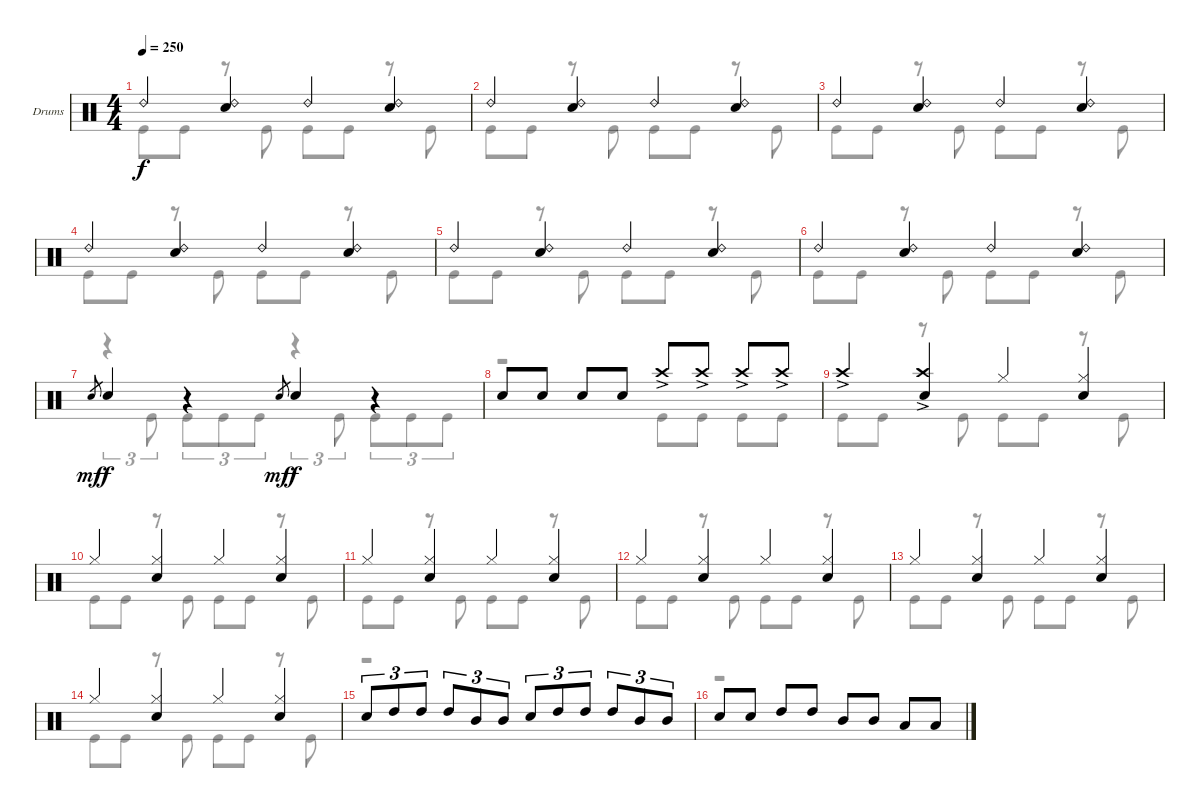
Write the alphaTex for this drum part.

\bracketExtendMode groupsimilarinstruments
\firstSystemTrackNameOrientation horizontal
\otherSystemsTrackNameOrientation horizontal
\track ("Drumkit" "Drums") {instrument percussion}
\staff {score}
\articulation defaults
\voice
\ts (4 4)
\tempo 250
\clef neutral
\ks c "Ride (bell) 2".4{dy f}
("Ride (bell) 2" "Snare (hit) 2").4 "Ride (bell) 2".4 ("Ride (bell) 2" "Snare (hit) 2").4 |
"Ride (bell) 2".4 ("Ride (bell) 2" "Snare (hit) 2").4 "Ride (bell) 2".4 ("Ride (bell) 2" "Snare (hit) 2").4 |
"Ride (bell) 2".4 ("Ride (bell) 2" "Snare (hit) 2").4 "Ride (bell) 2".4 ("Ride (bell) 2" "Snare (hit) 2").4 |
"Ride (bell) 2".4 ("Ride (bell) 2" "Snare (hit) 2").4 "Ride (bell) 2".4 ("Ride (bell) 2" "Snare (hit) 2").4 |
"Ride (bell) 2".4 ("Ride (bell) 2" "Snare (hit) 2").4 "Ride (bell) 2".4 ("Ride (bell) 2" "Snare (hit) 2").4 |
"Ride (bell) 2".4 ("Ride (bell) 2" "Snare (hit) 2").4 "Ride (bell) 2".4 ("Ride (bell) 2" "Snare (hit) 2").4 |
"Snare (hit) 2".8{gr dy mf} "Snare (hit) 2".4{dy f} r.4 "Snare (hit) 2".8{gr dy mf} "Snare (hit) 2".4{dy f} r.4 |
"Snare (hit) 2".8 "Snare (hit) 2".8 "Snare (hit) 2".8 "Snare (hit) 2".8 "Crash high (hit)"{ac}.8 "Crash high (hit)"{ac}.8 "Crash high (hit)"{ac}.8 "Crash high (hit)"{ac}.8 |
"Crash high (hit)"{ac}.4 ("Crash high (hit)"{ac} "Snare (hit) 2").4 "Hi-Hat (closed)".4 ("Hi-Hat (closed)" "Snare (hit) 2").4 |
"Hi-Hat (closed)".4 ("Hi-Hat (closed)" "Snare (hit) 2").4 "Hi-Hat (closed)".4 ("Hi-Hat (closed)" "Snare (hit) 2").4 |
"Hi-Hat (closed)".4 ("Hi-Hat (closed)" "Snare (hit) 2").4 "Hi-Hat (closed)".4 ("Hi-Hat (closed)" "Snare (hit) 2").4 |
"Hi-Hat (closed)".4 ("Hi-Hat (closed)" "Snare (hit) 2").4 "Hi-Hat (closed)".4 ("Hi-Hat (closed)" "Snare (hit) 2").4 |
"Hi-Hat (closed)".4 ("Hi-Hat (closed)" "Snare (hit) 2").4 "Hi-Hat (closed)".4 ("Hi-Hat (closed)" "Snare (hit) 2").4 |
"Hi-Hat (closed)".4 ("Hi-Hat (closed)" "Snare (hit) 2").4 "Hi-Hat (closed)".4 ("Hi-Hat (closed)" "Snare (hit) 2").4 |
"Snare (hit) 2".8{tu (3 2)} "High Tom (hit)".8{tu (3 2)} "High Tom (hit)".8{tu (3 2)} "High Tom (hit)".8{tu (3 2)} "Mid Tom (hit)".8{tu (3 2)} "Mid Tom (hit)".8{tu (3 2)} "Snare (hit) 2".8{tu (3 2)} "High Tom (hit)".8{tu (3 2)} "High Tom (hit)".8{tu (3 2)} "High Tom (hit)".8{tu (3 2)} "Mid Tom (hit)".8{tu (3 2)} "Mid Tom (hit)".8{tu (3 2)} |
"Snare (hit) 2".8 "Snare (hit) 2".8 "High Tom (hit)".8 "High Tom (hit)".8 "Mid Tom (hit)".8 "Mid Tom (hit)".8 "Low Tom (hit)".8 "Low Tom (hit)".8
\voice
\clef neutral
\ottava regular
\simile none
\ks c "Kick (hit)".8{dy f} "Kick (hit)".8
r.8 "Kick (hit)".8 "Kick (hit)".8 "Kick (hit)".8 r.8 "Kick (hit)".8 |
"Kick (hit)".8 "Kick (hit)".8 r.8 "Kick (hit)".8 "Kick (hit)".8 "Kick (hit)".8 r.8 "Kick (hit)".8 |
"Kick (hit)".8 "Kick (hit)".8 r.8 "Kick (hit)".8 "Kick (hit)".8 "Kick (hit)".8 r.8 "Kick (hit)".8 |
"Kick (hit)".8 "Kick (hit)".8 r.8 "Kick (hit)".8 "Kick (hit)".8 "Kick (hit)".8 r.8 "Kick (hit)".8 |
"Kick (hit)".8 "Kick (hit)".8 r.8 "Kick (hit)".8 "Kick (hit)".8 "Kick (hit)".8 r.8 "Kick (hit)".8 |
"Kick (hit)".8 "Kick (hit)".8 r.8 "Kick (hit)".8 "Kick (hit)".8 "Kick (hit)".8 r.8 "Kick (hit)".8 |
r.4{tu (3 2)} "Kick (hit)".8{tu (3 2)} "Kick (hit)".8{tu (3 2)} "Kick (hit)".8{tu (3 2)} "Kick (hit)".8{tu (3 2)} r.4{tu (3 2)} "Kick (hit)".8{tu (3 2)} "Kick (hit)".8{tu (3 2)} "Kick (hit)".8{tu (3 2)} "Kick (hit)".8{tu (3 2)} |
r.2 "Kick (hit)".8 "Kick (hit)".8 "Kick (hit)".8 "Kick (hit)".8 |
"Kick (hit)".8 "Kick (hit)".8 r.8 "Kick (hit)".8 "Kick (hit)".8 "Kick (hit)".8 r.8 "Kick (hit)".8 |
"Kick (hit)".8 "Kick (hit)".8 r.8 "Kick (hit)".8 "Kick (hit)".8 "Kick (hit)".8 r.8 "Kick (hit)".8 |
"Kick (hit)".8 "Kick (hit)".8 r.8 "Kick (hit)".8 "Kick (hit)".8 "Kick (hit)".8 r.8 "Kick (hit)".8 |
"Kick (hit)".8 "Kick (hit)".8 r.8 "Kick (hit)".8 "Kick (hit)".8 "Kick (hit)".8 r.8 "Kick (hit)".8 |
"Kick (hit)".8 "Kick (hit)".8 r.8 "Kick (hit)".8 "Kick (hit)".8 "Kick (hit)".8 r.8 "Kick (hit)".8 |
"Kick (hit)".8 "Kick (hit)".8 r.8 "Kick (hit)".8 "Kick (hit)".8 "Kick (hit)".8 r.8 "Kick (hit)".8 |
r.1 |
r.1
